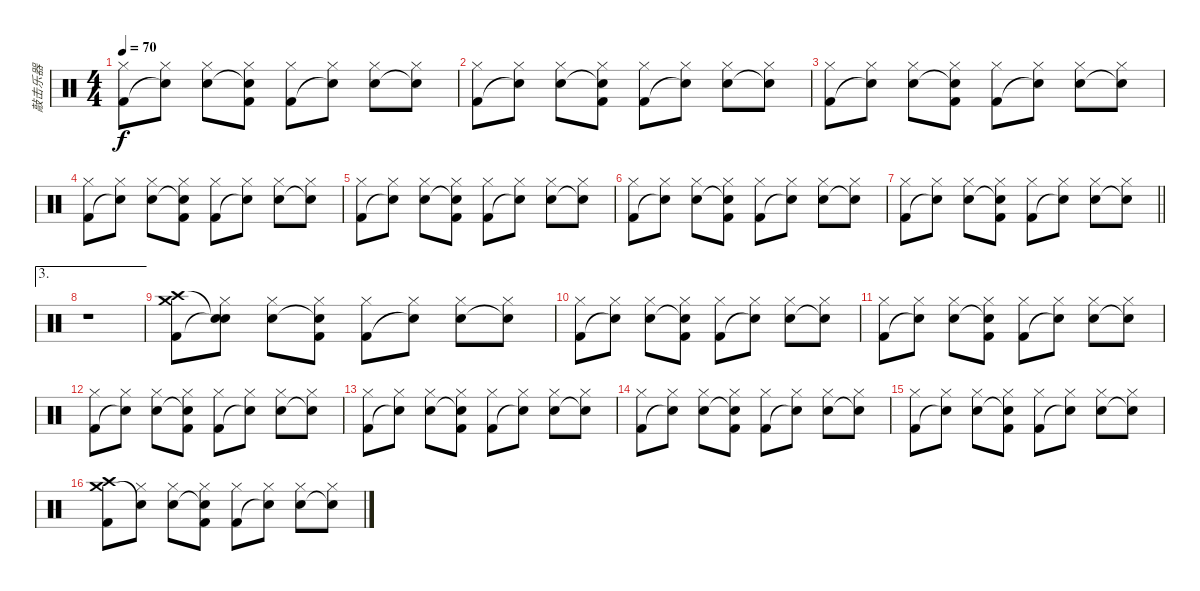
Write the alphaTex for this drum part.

\track ("敲击乐器" "敲击乐器") {instrument percussion}
\staff {score}
\articulation defaults
\ts (4 4)
\tempo 70
\clef neutral
\ks c
("Hi-Hat (closed)" "Kick (hit) 2").8{dy f} ("Hi-Hat (closed)" "Snare (hit)"{t}).8 ("Hi-Hat (closed)" "Snare (hit) 2").8 ("Hi-Hat (closed)" "Snare (hit)"{t} "Kick (hit) 2").8 ("Hi-Hat (closed)" "Kick (hit) 2").8 ("Hi-Hat (closed)" "Snare (hit)"{t}).8 ("Hi-Hat (closed)" "Snare (hit) 2").8 ("Hi-Hat (closed)" "Snare (hit)"{t}).8 |
("Hi-Hat (closed)" "Kick (hit) 2").8 ("Hi-Hat (closed)" "Snare (hit)"{t}).8 ("Hi-Hat (closed)" "Snare (hit) 2").8 ("Hi-Hat (closed)" "Snare (hit)"{t} "Kick (hit) 2").8 ("Hi-Hat (closed)" "Kick (hit) 2").8 ("Hi-Hat (closed)" "Snare (hit)"{t}).8 ("Hi-Hat (closed)" "Snare (hit) 2").8 ("Hi-Hat (closed)" "Snare (hit)"{t}).8 |
("Hi-Hat (closed)" "Kick (hit) 2").8 ("Hi-Hat (closed)" "Snare (hit)"{t}).8 ("Hi-Hat (closed)" "Snare (hit) 2").8 ("Hi-Hat (closed)" "Snare (hit)"{t} "Kick (hit) 2").8 ("Hi-Hat (closed)" "Kick (hit) 2").8 ("Hi-Hat (closed)" "Snare (hit)"{t}).8 ("Hi-Hat (closed)" "Snare (hit) 2").8 ("Hi-Hat (closed)" "Snare (hit)"{t}).8 |
("Hi-Hat (closed)" "Kick (hit) 2").8 ("Hi-Hat (closed)" "Snare (hit)"{t}).8 ("Hi-Hat (closed)" "Snare (hit) 2").8 ("Hi-Hat (closed)" "Snare (hit)"{t} "Kick (hit) 2").8 ("Hi-Hat (closed)" "Kick (hit) 2").8 ("Hi-Hat (closed)" "Snare (hit)"{t}).8 ("Hi-Hat (closed)" "Snare (hit) 2").8 ("Hi-Hat (closed)" "Snare (hit)"{t}).8 |
("Hi-Hat (closed)" "Kick (hit) 2").8 ("Hi-Hat (closed)" "Snare (hit)"{t}).8 ("Hi-Hat (closed)" "Snare (hit) 2").8 ("Hi-Hat (closed)" "Snare (hit)"{t} "Kick (hit) 2").8 ("Hi-Hat (closed)" "Kick (hit) 2").8 ("Hi-Hat (closed)" "Snare (hit)"{t}).8 ("Hi-Hat (closed)" "Snare (hit) 2").8 ("Hi-Hat (closed)" "Snare (hit)"{t}).8 |
("Hi-Hat (closed)" "Kick (hit) 2").8 ("Hi-Hat (closed)" "Snare (hit)"{t}).8 ("Hi-Hat (closed)" "Snare (hit) 2").8 ("Hi-Hat (closed)" "Snare (hit)"{t} "Kick (hit) 2").8 ("Hi-Hat (closed)" "Kick (hit) 2").8 ("Hi-Hat (closed)" "Snare (hit)"{t}).8 ("Hi-Hat (closed)" "Snare (hit) 2").8 ("Hi-Hat (closed)" "Snare (hit)"{t}).8 |
\barLineRight lightlight
("Hi-Hat (closed)" "Kick (hit) 2").8 ("Hi-Hat (closed)" "Snare (hit)"{t}).8 ("Hi-Hat (closed)" "Snare (hit) 2").8 ("Hi-Hat (closed)" "Snare (hit)"{t} "Kick (hit) 2").8 ("Hi-Hat (closed)" "Kick (hit) 2").8 ("Hi-Hat (closed)" "Snare (hit)"{t}).8 ("Hi-Hat (closed)" "Snare (hit) 2").8 ("Hi-Hat (closed)" "Snare (hit)"{t}).8 |
\ae 3
r.1 |
("Crash medium (hit)" "Crash high (hit)" "Kick (hit) 2").8 ("Hi-Hat (closed)" "Snare (hit)"{t} "Snare (hit)"{t}).8 ("Hi-Hat (closed)" "Snare (hit) 2").8 ("Hi-Hat (closed)" "Snare (hit)"{t} "Kick (hit) 2").8 ("Hi-Hat (closed)" "Kick (hit) 2").8 ("Hi-Hat (closed)" "Snare (hit)"{t}).8 ("Hi-Hat (closed)" "Snare (hit) 2").8 ("Hi-Hat (closed)" "Snare (hit)"{t}).8 |
("Hi-Hat (closed)" "Kick (hit) 2").8 ("Hi-Hat (closed)" "Snare (hit)"{t}).8 ("Hi-Hat (closed)" "Snare (hit) 2").8 ("Hi-Hat (closed)" "Snare (hit)"{t} "Kick (hit) 2").8 ("Hi-Hat (closed)" "Kick (hit) 2").8 ("Hi-Hat (closed)" "Snare (hit)"{t}).8 ("Hi-Hat (closed)" "Snare (hit) 2").8 ("Hi-Hat (closed)" "Snare (hit)"{t}).8 |
("Hi-Hat (closed)" "Kick (hit) 2").8 ("Hi-Hat (closed)" "Snare (hit)"{t}).8 ("Hi-Hat (closed)" "Snare (hit) 2").8 ("Hi-Hat (closed)" "Snare (hit)"{t} "Kick (hit) 2").8 ("Hi-Hat (closed)" "Kick (hit) 2").8 ("Hi-Hat (closed)" "Snare (hit)"{t}).8 ("Hi-Hat (closed)" "Snare (hit) 2").8 ("Hi-Hat (closed)" "Snare (hit)"{t}).8 |
("Hi-Hat (closed)" "Kick (hit) 2").8 ("Hi-Hat (closed)" "Snare (hit)"{t}).8 ("Hi-Hat (closed)" "Snare (hit) 2").8 ("Hi-Hat (closed)" "Snare (hit)"{t} "Kick (hit) 2").8 ("Hi-Hat (closed)" "Kick (hit) 2").8 ("Hi-Hat (closed)" "Snare (hit)"{t}).8 ("Hi-Hat (closed)" "Snare (hit) 2").8 ("Hi-Hat (closed)" "Snare (hit)"{t}).8 |
("Hi-Hat (closed)" "Kick (hit) 2").8 ("Hi-Hat (closed)" "Snare (hit)"{t}).8 ("Hi-Hat (closed)" "Snare (hit) 2").8 ("Hi-Hat (closed)" "Snare (hit)"{t} "Kick (hit) 2").8 ("Hi-Hat (closed)" "Kick (hit) 2").8 ("Hi-Hat (closed)" "Snare (hit)"{t}).8 ("Hi-Hat (closed)" "Snare (hit) 2").8 ("Hi-Hat (closed)" "Snare (hit)"{t}).8 |
("Hi-Hat (closed)" "Kick (hit) 2").8 ("Hi-Hat (closed)" "Snare (hit)"{t}).8 ("Hi-Hat (closed)" "Snare (hit) 2").8 ("Hi-Hat (closed)" "Snare (hit)"{t} "Kick (hit) 2").8 ("Hi-Hat (closed)" "Kick (hit) 2").8 ("Hi-Hat (closed)" "Snare (hit)"{t}).8 ("Hi-Hat (closed)" "Snare (hit) 2").8 ("Hi-Hat (closed)" "Snare (hit)"{t}).8 |
("Hi-Hat (closed)" "Kick (hit) 2").8 ("Hi-Hat (closed)" "Snare (hit)"{t}).8 ("Hi-Hat (closed)" "Snare (hit) 2").8 ("Hi-Hat (closed)" "Snare (hit)"{t} "Kick (hit) 2").8 ("Hi-Hat (closed)" "Kick (hit) 2").8 ("Hi-Hat (closed)" "Snare (hit)"{t}).8 ("Hi-Hat (closed)" "Snare (hit) 2").8 ("Hi-Hat (closed)" "Snare (hit)"{t}).8 |
("Crash high (hit)" "Crash medium (hit)" "Kick (hit) 2").8 ("Hi-Hat (closed)" "Snare (hit)"{t}).8 ("Hi-Hat (closed)" "Snare (hit) 2").8 ("Hi-Hat (closed)" "Snare (hit)"{t} "Kick (hit) 2").8 ("Hi-Hat (closed)" "Kick (hit) 2").8 ("Hi-Hat (closed)" "Snare (hit)"{t}).8 ("Hi-Hat (closed)" "Snare (hit) 2").8 ("Hi-Hat (closed)" "Snare (hit)"{t}).8
